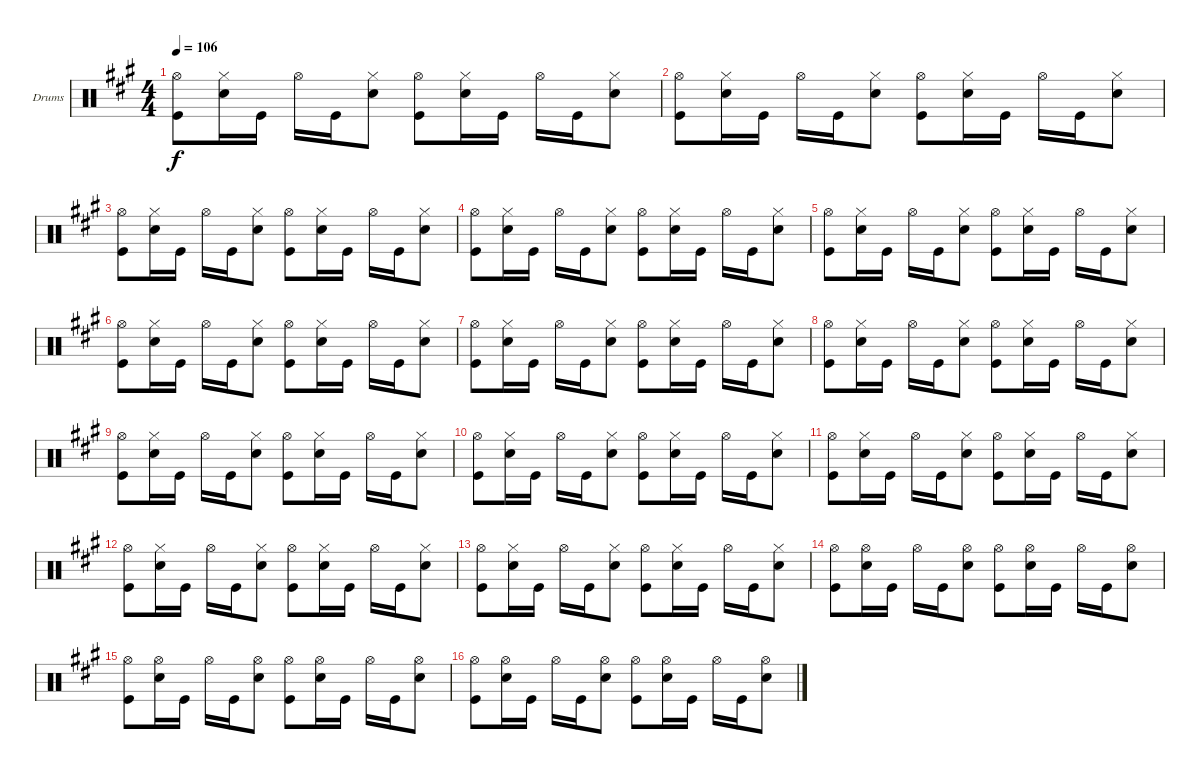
\bracketExtendMode groupsimilarinstruments
\firstSystemTrackNameOrientation horizontal
\otherSystemsTrackNameOrientation horizontal
\track ("Fabrizio Moretti" "Drums") {instrument percussion}
\staff {score}
\articulation defaults
\ts (4 4)
\tempo 106
\clef neutral
\ks a
("Hi-Hat (open)" "Kick (hit)").8{dy f} ("Hi-Hat (closed)" "Snare (hit) 2").16 "Kick (hit)".16 "Hi-Hat (open)".16 "Kick (hit)".16 ("Hi-Hat (closed)" "Snare (hit) 2").8 ("Hi-Hat (open)" "Kick (hit)").8 ("Hi-Hat (closed)" "Snare (hit) 2").16 "Kick (hit)".16 "Hi-Hat (open)".16 "Kick (hit)".16 ("Hi-Hat (closed)" "Snare (hit) 2").8 |
("Hi-Hat (open)" "Kick (hit)").8 ("Hi-Hat (closed)" "Snare (hit) 2").16 "Kick (hit)".16 "Hi-Hat (open)".16 "Kick (hit)".16 ("Hi-Hat (closed)" "Snare (hit) 2").8 ("Hi-Hat (open)" "Kick (hit)").8 ("Hi-Hat (closed)" "Snare (hit) 2").16 "Kick (hit)".16 "Hi-Hat (open)".16 "Kick (hit)".16 ("Hi-Hat (closed)" "Snare (hit) 2").8 |
("Hi-Hat (open)" "Kick (hit)").8 ("Hi-Hat (closed)" "Snare (hit) 2").16 "Kick (hit)".16 "Hi-Hat (open)".16 "Kick (hit)".16 ("Hi-Hat (closed)" "Snare (hit) 2").8 ("Hi-Hat (open)" "Kick (hit)").8 ("Hi-Hat (closed)" "Snare (hit) 2").16 "Kick (hit)".16 "Hi-Hat (open)".16 "Kick (hit)".16 ("Hi-Hat (closed)" "Snare (hit) 2").8 |
("Hi-Hat (open)" "Kick (hit)").8 ("Hi-Hat (closed)" "Snare (hit) 2").16 "Kick (hit)".16 "Hi-Hat (open)".16 "Kick (hit)".16 ("Hi-Hat (closed)" "Snare (hit) 2").8 ("Hi-Hat (open)" "Kick (hit)").8 ("Hi-Hat (closed)" "Snare (hit) 2").16 "Kick (hit)".16 "Hi-Hat (open)".16 "Kick (hit)".16 ("Hi-Hat (closed)" "Snare (hit) 2").8 |
("Hi-Hat (open)" "Kick (hit)").8 ("Hi-Hat (closed)" "Snare (hit) 2").16 "Kick (hit)".16 "Hi-Hat (open)".16 "Kick (hit)".16 ("Hi-Hat (closed)" "Snare (hit) 2").8 ("Hi-Hat (open)" "Kick (hit)").8 ("Hi-Hat (closed)" "Snare (hit) 2").16 "Kick (hit)".16 "Hi-Hat (open)".16 "Kick (hit)".16 ("Hi-Hat (closed)" "Snare (hit) 2").8 |
("Hi-Hat (open)" "Kick (hit)").8 ("Hi-Hat (closed)" "Snare (hit) 2").16 "Kick (hit)".16 "Hi-Hat (open)".16 "Kick (hit)".16 ("Hi-Hat (closed)" "Snare (hit) 2").8 ("Hi-Hat (open)" "Kick (hit)").8 ("Hi-Hat (closed)" "Snare (hit) 2").16 "Kick (hit)".16 "Hi-Hat (open)".16 "Kick (hit)".16 ("Hi-Hat (closed)" "Snare (hit) 2").8 |
("Hi-Hat (open)" "Kick (hit)").8 ("Hi-Hat (closed)" "Snare (hit) 2").16 "Kick (hit)".16 "Hi-Hat (open)".16 "Kick (hit)".16 ("Hi-Hat (closed)" "Snare (hit) 2").8 ("Hi-Hat (open)" "Kick (hit)").8 ("Hi-Hat (closed)" "Snare (hit) 2").16 "Kick (hit)".16 "Hi-Hat (open)".16 "Kick (hit)".16 ("Hi-Hat (closed)" "Snare (hit) 2").8 |
("Hi-Hat (open)" "Kick (hit)").8 ("Hi-Hat (closed)" "Snare (hit) 2").16 "Kick (hit)".16 "Hi-Hat (open)".16 "Kick (hit)".16 ("Hi-Hat (closed)" "Snare (hit) 2").8 ("Hi-Hat (open)" "Kick (hit)").8 ("Hi-Hat (closed)" "Snare (hit) 2").16 "Kick (hit)".16 "Hi-Hat (open)".16 "Kick (hit)".16 ("Hi-Hat (closed)" "Snare (hit) 2").8 |
("Hi-Hat (open)" "Kick (hit)").8 ("Hi-Hat (closed)" "Snare (hit) 2").16 "Kick (hit)".16 "Hi-Hat (open)".16 "Kick (hit)".16 ("Hi-Hat (closed)" "Snare (hit) 2").8 ("Hi-Hat (open)" "Kick (hit)").8 ("Hi-Hat (closed)" "Snare (hit) 2").16 "Kick (hit)".16 "Hi-Hat (open)".16 "Kick (hit)".16 ("Hi-Hat (closed)" "Snare (hit) 2").8 |
("Hi-Hat (open)" "Kick (hit)").8 ("Hi-Hat (closed)" "Snare (hit) 2").16 "Kick (hit)".16 "Hi-Hat (open)".16 "Kick (hit)".16 ("Hi-Hat (closed)" "Snare (hit) 2").8 ("Hi-Hat (open)" "Kick (hit)").8 ("Hi-Hat (closed)" "Snare (hit) 2").16 "Kick (hit)".16 "Hi-Hat (open)".16 "Kick (hit)".16 ("Hi-Hat (closed)" "Snare (hit) 2").8 |
("Hi-Hat (open)" "Kick (hit)").8 ("Hi-Hat (closed)" "Snare (hit) 2").16 "Kick (hit)".16 "Hi-Hat (open)".16 "Kick (hit)".16 ("Hi-Hat (closed)" "Snare (hit) 2").8 ("Hi-Hat (open)" "Kick (hit)").8 ("Hi-Hat (closed)" "Snare (hit) 2").16 "Kick (hit)".16 "Hi-Hat (open)".16 "Kick (hit)".16 ("Hi-Hat (closed)" "Snare (hit) 2").8 |
("Hi-Hat (open)" "Kick (hit)").8 ("Hi-Hat (closed)" "Snare (hit) 2").16 "Kick (hit)".16 "Hi-Hat (open)".16 "Kick (hit)".16 ("Hi-Hat (closed)" "Snare (hit) 2").8 ("Hi-Hat (open)" "Kick (hit)").8 ("Hi-Hat (closed)" "Snare (hit) 2").16 "Kick (hit)".16 "Hi-Hat (open)".16 "Kick (hit)".16 ("Hi-Hat (closed)" "Snare (hit) 2").8 |
("Hi-Hat (open)" "Kick (hit)").8 ("Hi-Hat (closed)" "Snare (hit) 2").16 "Kick (hit)".16 "Hi-Hat (open)".16 "Kick (hit)".16 ("Hi-Hat (closed)" "Snare (hit) 2").8 ("Hi-Hat (open)" "Kick (hit)").8 ("Hi-Hat (closed)" "Snare (hit) 2").16 "Kick (hit)".16 "Hi-Hat (open)".16 "Kick (hit)".16 ("Hi-Hat (closed)" "Snare (hit) 2").8 |
("Hi-Hat (open)" "Kick (hit)").8 ("Hi-Hat (open)" "Snare (hit) 2").16 "Kick (hit)".16 "Hi-Hat (open)".16 "Kick (hit)".16 ("Hi-Hat (open)" "Snare (hit) 2").8 ("Hi-Hat (open)" "Kick (hit)").8 ("Hi-Hat (open)" "Snare (hit) 2").16 "Kick (hit)".16 "Hi-Hat (open)".16 "Kick (hit)".16 ("Hi-Hat (open)" "Snare (hit) 2").8 |
("Hi-Hat (open)" "Kick (hit)").8 ("Hi-Hat (open)" "Snare (hit) 2").16 "Kick (hit)".16 "Hi-Hat (open)".16 "Kick (hit)".16 ("Hi-Hat (open)" "Snare (hit) 2").8 ("Hi-Hat (open)" "Kick (hit)").8 ("Hi-Hat (open)" "Snare (hit) 2").16 "Kick (hit)".16 "Hi-Hat (open)".16 "Kick (hit)".16 ("Hi-Hat (open)" "Snare (hit) 2").8 |
("Hi-Hat (open)" "Kick (hit)").8 ("Hi-Hat (open)" "Snare (hit) 2").16 "Kick (hit)".16 "Hi-Hat (open)".16 "Kick (hit)".16 ("Hi-Hat (open)" "Snare (hit) 2").8 ("Hi-Hat (open)" "Kick (hit)").8 ("Hi-Hat (open)" "Snare (hit) 2").16 "Kick (hit)".16 "Hi-Hat (open)".16 "Kick (hit)".16 ("Hi-Hat (open)" "Snare (hit) 2").8
